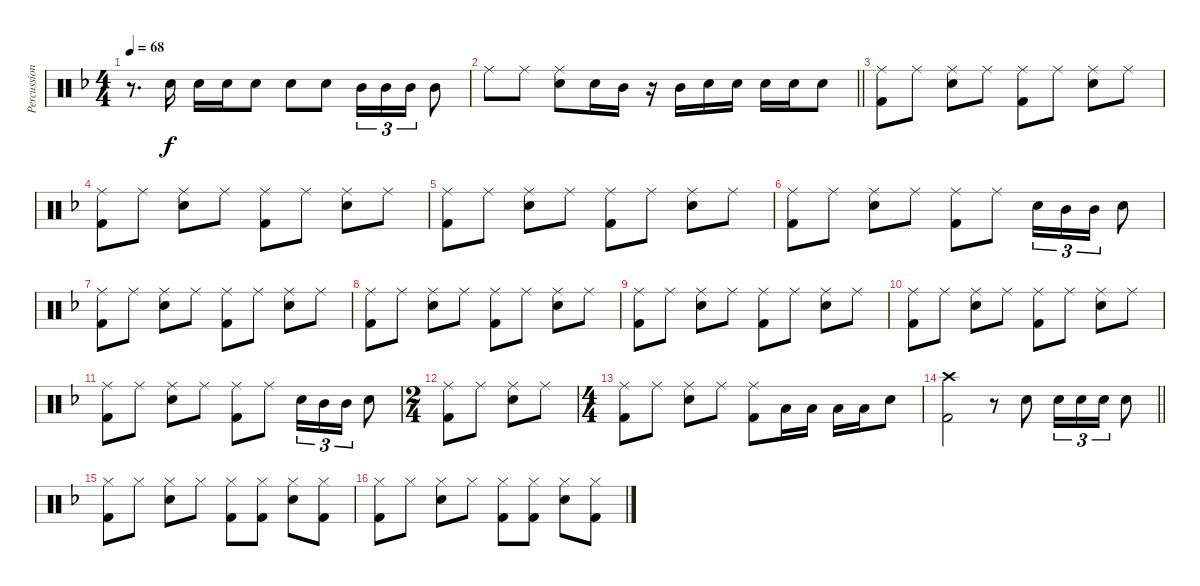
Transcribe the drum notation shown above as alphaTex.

\track ("Percussion" "Percussion") {instrument percussion}
\staff {score}
\articulation defaults
\ts (4 4)
\tempo 68
\clef neutral
\ks f
r.8{d dy f} "Snare (hit) 2".16 "Snare (hit) 2".16 "Snare (hit) 2".16 "Snare (hit) 2".8 "Snare (hit) 2".8 "Snare (hit) 2".8 "Mid Tom (hit)".16{tu (3 2)} "Mid Tom (hit)".16{tu (3 2)} "Mid Tom (hit)".16{tu (3 2)} "Mid Tom (hit)".8 |
\barLineRight lightlight "Ride (middle)".8 "Ride (middle)".8
("Ride (middle)" "Snare (hit) 2").8 "Snare (hit) 2".16 "Mid Tom (hit)".16 r.16 "Mid Tom (hit)".16 "Snare (hit) 2".16 "Snare (hit) 2".16 "Snare (hit) 2".16 "Snare (hit) 2".16 "Snare (hit) 2".8 |
("Ride (middle)" "Kick (hit) 2").8 "Ride (middle)".8 ("Ride (middle)" "Snare (hit) 2").8 "Ride (middle)".8 ("Ride (middle)" "Kick (hit) 2").8 "Ride (middle)".8 ("Ride (middle)" "Snare (hit) 2").8 "Ride (middle)".8 |
("Ride (middle)" "Kick (hit) 2").8 "Ride (middle)".8 ("Ride (middle)" "Snare (hit) 2").8 "Ride (middle)".8 ("Ride (middle)" "Kick (hit) 2").8 "Ride (middle)".8 ("Ride (middle)" "Snare (hit) 2").8 "Ride (middle)".8 |
("Ride (middle)" "Kick (hit) 2").8 "Ride (middle)".8 ("Ride (middle)" "Snare (hit) 2").8 "Ride (middle)".8 ("Ride (middle)" "Kick (hit) 2").8 "Ride (middle)".8 ("Ride (middle)" "Snare (hit) 2").8 "Ride (middle)".8 |
("Ride (middle)" "Kick (hit) 2").8 "Ride (middle)".8 ("Ride (middle)" "Snare (hit) 2").8 "Ride (middle)".8 ("Ride (middle)" "Kick (hit) 2").8 "Ride (middle)".8 "Snare (hit) 2".16{tu (3 2)} "Mid Tom (hit)".16{tu (3 2)} "Mid Tom (hit)".16{tu (3 2)} "Snare (hit) 2".8 |
("Ride (middle)" "Kick (hit) 2").8 "Ride (middle)".8 ("Ride (middle)" "Snare (hit) 2").8 "Ride (middle)".8 ("Ride (middle)" "Kick (hit) 2").8 "Ride (middle)".8 ("Ride (middle)" "Snare (hit) 2").8 "Ride (middle)".8 |
("Ride (middle)" "Kick (hit) 2").8 "Ride (middle)".8 ("Ride (middle)" "Snare (hit) 2").8 "Ride (middle)".8 ("Ride (middle)" "Kick (hit) 2").8 "Ride (middle)".8 ("Ride (middle)" "Snare (hit) 2").8 "Ride (middle)".8 |
("Ride (middle)" "Kick (hit) 2").8 "Ride (middle)".8 ("Ride (middle)" "Snare (hit) 2").8 "Ride (middle)".8 ("Ride (middle)" "Kick (hit) 2").8 "Ride (middle)".8 ("Ride (middle)" "Snare (hit) 2").8 "Ride (middle)".8 |
("Ride (middle)" "Kick (hit) 2").8 "Ride (middle)".8 ("Ride (middle)" "Snare (hit) 2").8 "Ride (middle)".8 ("Ride (middle)" "Kick (hit) 2").8 "Ride (middle)".8 ("Ride (middle)" "Snare (hit) 2").8 "Ride (middle)".8 |
("Ride (middle)" "Kick (hit) 2").8 "Ride (middle)".8 ("Ride (middle)" "Snare (hit) 2").8 "Ride (middle)".8 ("Ride (middle)" "Kick (hit) 2").8 "Ride (middle)".8 "Snare (hit) 2".16{tu (3 2)} "Mid Tom (hit)".16{tu (3 2)} "Mid Tom (hit)".16{tu (3 2)} "Snare (hit) 2".8 |
\ts (2 4)
("Ride (middle)" "Kick (hit) 2").8 "Ride (middle)".8 ("Ride (middle)" "Snare (hit) 2").8 "Ride (middle)".8 |
\ts (4 4)
("Ride (middle)" "Kick (hit) 2").8 "Ride (middle)".8 ("Ride (middle)" "Snare (hit) 2").8 "Ride (middle)".8 ("Ride (middle)" "Kick (hit) 2").8 "Low Floor Tom (hit)".16 "Low Floor Tom (hit)".16 "Low Floor Tom (hit)".16 "Low Floor Tom (hit)".16 "Snare (hit) 2".8 |
\barLineRight lightlight
("Crash high (hit)" "Kick (hit) 2").2 r.8 "Snare (hit) 2".8 "Snare (hit) 2".16{tu (3 2)} "Snare (hit) 2".16{tu (3 2)} "Snare (hit) 2".16{tu (3 2)} "Snare (hit) 2".8 |
("Hi-Hat (closed)" "Kick (hit) 2").8 "Hi-Hat (closed)".8 ("Hi-Hat (closed)" "Snare (hit) 2").8 "Hi-Hat (closed)".8 ("Hi-Hat (closed)" "Kick (hit) 2").8 ("Hi-Hat (closed)" "Kick (hit) 2").8 ("Hi-Hat (closed)" "Snare (hit) 2").8 ("Hi-Hat (closed)" "Kick (hit) 2").8 |
("Hi-Hat (closed)" "Kick (hit) 2").8 "Hi-Hat (closed)".8 ("Hi-Hat (closed)" "Snare (hit) 2").8 "Hi-Hat (closed)".8 ("Hi-Hat (closed)" "Kick (hit) 2").8 ("Hi-Hat (closed)" "Kick (hit) 2").8 ("Hi-Hat (closed)" "Snare (hit) 2").8 ("Hi-Hat (closed)" "Kick (hit) 2").8
